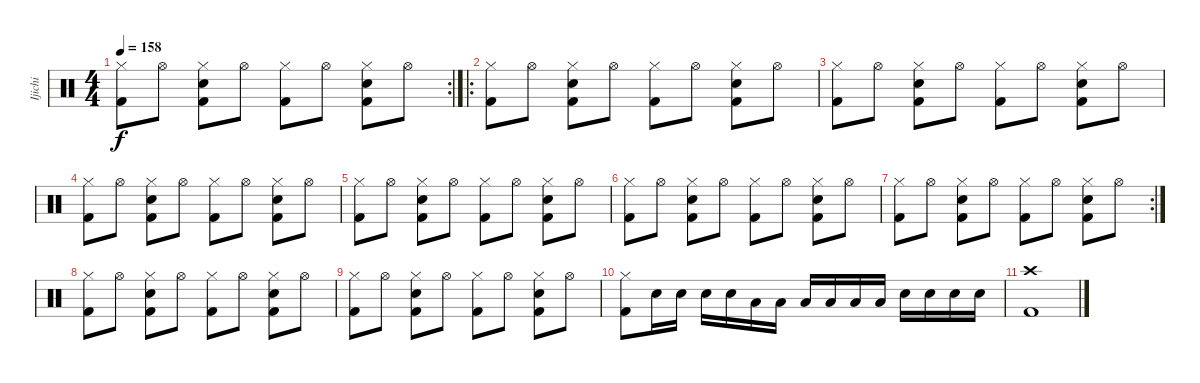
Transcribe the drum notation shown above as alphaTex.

\track ("Ijichi" "Ijichi") {instrument percussion}
\staff {score}
\articulation defaults
\rc 2
\ts (4 4)
\tempo 158
\clef neutral
\ks c
("Hi-Hat (closed)" "Kick (hit) 2").8{dy f} "Hi-Hat (open)".8 ("Hi-Hat (closed)" "Snare (hit) 2" "Kick (hit) 2").8 "Hi-Hat (open)".8 ("Hi-Hat (closed)" "Kick (hit) 2").8 "Hi-Hat (open)".8 ("Hi-Hat (closed)" "Snare (hit) 2" "Kick (hit) 2").8 "Hi-Hat (open)".8 |
\ro
("Hi-Hat (closed)" "Kick (hit) 2").8 "Hi-Hat (open)".8 ("Hi-Hat (closed)" "Snare (hit) 2" "Kick (hit) 2").8 "Hi-Hat (open)".8 ("Hi-Hat (closed)" "Kick (hit) 2").8 "Hi-Hat (open)".8 ("Hi-Hat (closed)" "Snare (hit) 2" "Kick (hit) 2").8 "Hi-Hat (open)".8 |
("Hi-Hat (closed)" "Kick (hit) 2").8 "Hi-Hat (open)".8 ("Hi-Hat (closed)" "Snare (hit) 2" "Kick (hit) 2").8 "Hi-Hat (open)".8 ("Hi-Hat (closed)" "Kick (hit) 2").8 "Hi-Hat (open)".8 ("Hi-Hat (closed)" "Snare (hit) 2" "Kick (hit) 2").8 "Hi-Hat (open)".8 |
("Hi-Hat (closed)" "Kick (hit) 2").8 "Hi-Hat (open)".8 ("Hi-Hat (closed)" "Snare (hit) 2" "Kick (hit) 2").8 "Hi-Hat (open)".8 ("Hi-Hat (closed)" "Kick (hit) 2").8 "Hi-Hat (open)".8 ("Hi-Hat (closed)" "Snare (hit) 2" "Kick (hit) 2").8 "Hi-Hat (open)".8 |
("Hi-Hat (closed)" "Kick (hit) 2").8 "Hi-Hat (open)".8 ("Hi-Hat (closed)" "Snare (hit) 2" "Kick (hit) 2").8 "Hi-Hat (open)".8 ("Hi-Hat (closed)" "Kick (hit) 2").8 "Hi-Hat (open)".8 ("Hi-Hat (closed)" "Snare (hit) 2" "Kick (hit) 2").8 "Hi-Hat (open)".8 |
("Hi-Hat (closed)" "Kick (hit) 2").8 "Hi-Hat (open)".8 ("Hi-Hat (closed)" "Snare (hit) 2" "Kick (hit) 2").8 "Hi-Hat (open)".8 ("Hi-Hat (closed)" "Kick (hit) 2").8 "Hi-Hat (open)".8 ("Hi-Hat (closed)" "Snare (hit) 2" "Kick (hit) 2").8 "Hi-Hat (open)".8 |
\rc 2
("Hi-Hat (closed)" "Kick (hit) 2").8 "Hi-Hat (open)".8 ("Hi-Hat (closed)" "Snare (hit) 2" "Kick (hit) 2").8 "Hi-Hat (open)".8 ("Hi-Hat (closed)" "Kick (hit) 2").8 "Hi-Hat (open)".8 ("Hi-Hat (closed)" "Snare (hit) 2" "Kick (hit) 2").8 "Hi-Hat (open)".8 |
("Hi-Hat (closed)" "Kick (hit) 2").8 "Hi-Hat (open)".8 ("Hi-Hat (closed)" "Snare (hit) 2" "Kick (hit) 2").8 "Hi-Hat (open)".8 ("Hi-Hat (closed)" "Kick (hit) 2").8 "Hi-Hat (open)".8 ("Hi-Hat (closed)" "Snare (hit) 2" "Kick (hit) 2").8 "Hi-Hat (open)".8 |
("Hi-Hat (closed)" "Kick (hit) 2").8 "Hi-Hat (open)".8 ("Hi-Hat (closed)" "Snare (hit) 2" "Kick (hit) 2").8 "Hi-Hat (open)".8 ("Hi-Hat (closed)" "Kick (hit) 2").8 "Hi-Hat (open)".8 ("Hi-Hat (closed)" "Snare (hit) 2" "Kick (hit) 2").8 "Hi-Hat (open)".8 |
("Hi-Hat (closed)" "Kick (hit) 2").8 "Snare (hit) 2".16 "Snare (hit) 2".16 "Snare (hit) 2".16 "Snare (hit) 2".16 "Low Floor Tom (hit)".16 "Low Floor Tom (hit)".16 "Low Tom (hit)".16 "Low Tom (hit)".16 "Low Tom (hit)".16 "Low Tom (hit)".16 "Snare (hit) 2".16 "Snare (hit) 2".16 "Snare (hit) 2".16 "Snare (hit) 2".16 |
("Crash high (hit)" "Kick (hit) 2").1
